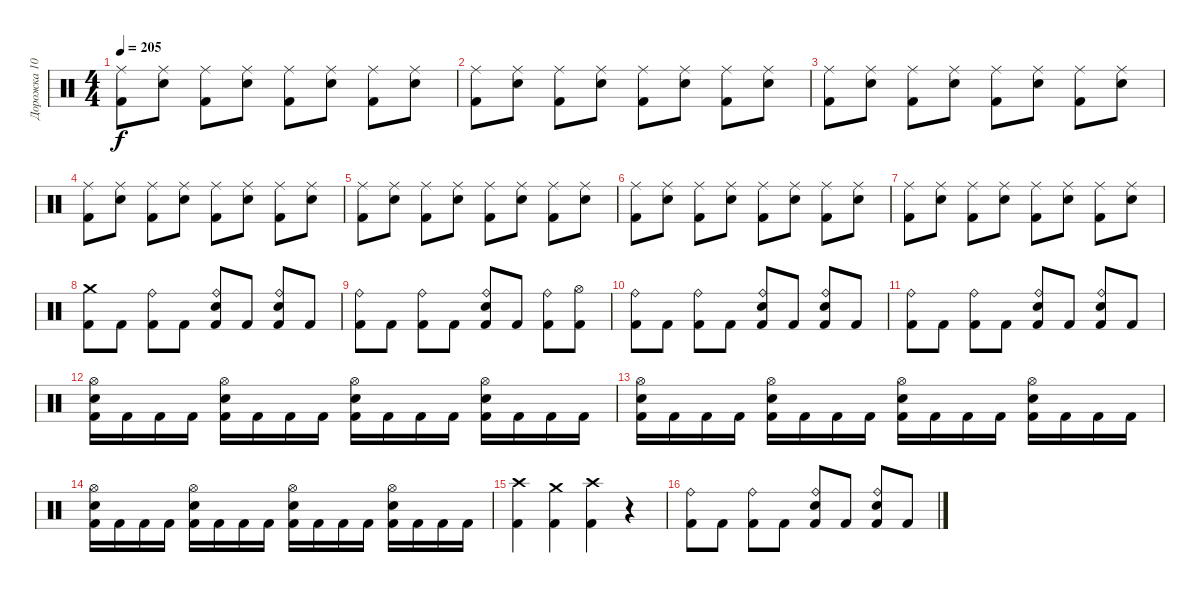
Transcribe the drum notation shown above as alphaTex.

\track ("Дорожка 10" "Дорожка 10") {instrument percussion}
\staff {score}
\articulation defaults
\ts (4 4)
\tempo 205
\clef neutral
\ks c
("Ride (middle)" "Kick (hit) 2").8{dy f} ("Ride (middle)" "Snare (hit) 2").8 ("Ride (middle)" "Kick (hit) 2").8 ("Ride (middle)" "Snare (hit) 2").8 ("Ride (middle)" "Kick (hit) 2").8 ("Ride (middle)" "Snare (hit) 2").8 ("Ride (middle)" "Kick (hit) 2").8 ("Ride (middle)" "Snare (hit) 2").8 |
("Ride (middle)" "Kick (hit) 2").8 ("Ride (middle)" "Snare (hit) 2").8 ("Ride (middle)" "Kick (hit) 2").8 ("Ride (middle)" "Snare (hit) 2").8 ("Ride (middle)" "Kick (hit) 2").8 ("Ride (middle)" "Snare (hit) 2").8 ("Ride (middle)" "Kick (hit) 2").8 ("Ride (middle)" "Snare (hit) 2").8 |
("Ride (middle)" "Kick (hit) 2").8 ("Ride (middle)" "Snare (hit) 2").8 ("Ride (middle)" "Kick (hit) 2").8 ("Ride (middle)" "Snare (hit) 2").8 ("Ride (middle)" "Kick (hit) 2").8 ("Ride (middle)" "Snare (hit) 2").8 ("Ride (middle)" "Kick (hit) 2").8 ("Ride (middle)" "Snare (hit) 2").8 |
("Ride (middle)" "Kick (hit) 2").8 ("Ride (middle)" "Snare (hit) 2").8 ("Ride (middle)" "Kick (hit) 2").8 ("Ride (middle)" "Snare (hit) 2").8 ("Ride (middle)" "Kick (hit) 2").8 ("Ride (middle)" "Snare (hit) 2").8 ("Ride (middle)" "Kick (hit) 2").8 ("Ride (middle)" "Snare (hit) 2").8 |
("Ride (middle)" "Kick (hit) 2").8 ("Ride (middle)" "Snare (hit) 2").8 ("Ride (middle)" "Kick (hit) 2").8 ("Ride (middle)" "Snare (hit) 2").8 ("Ride (middle)" "Kick (hit) 2").8 ("Ride (middle)" "Snare (hit) 2").8 ("Ride (middle)" "Kick (hit) 2").8 ("Ride (middle)" "Snare (hit) 2").8 |
("Ride (middle)" "Kick (hit) 2").8 ("Ride (middle)" "Snare (hit) 2").8 ("Ride (middle)" "Kick (hit) 2").8 ("Ride (middle)" "Snare (hit) 2").8 ("Ride (middle)" "Kick (hit) 2").8 ("Ride (middle)" "Snare (hit) 2").8 ("Ride (middle)" "Kick (hit) 2").8 ("Ride (middle)" "Snare (hit) 2").8 |
("Ride (middle)" "Kick (hit) 2").8 ("Ride (middle)" "Snare (hit) 2").8 ("Ride (middle)" "Kick (hit) 2").8 ("Ride (middle)" "Snare (hit) 2").8 ("Ride (middle)" "Kick (hit) 2").8 ("Ride (middle)" "Snare (hit) 2").8 ("Ride (middle)" "Kick (hit) 2").8 ("Ride (middle)" "Snare (hit) 2").8 |
("Crash medium (hit)" "Kick (hit) 2").8 "Kick (hit) 2".8 ("Ride (bell)" "Kick (hit) 2").8 "Kick (hit) 2".8 ("Ride (bell)" "Electric Snare (hit)" "Kick (hit) 2").8 "Kick (hit) 2".8 ("Ride (bell)" "Electric Snare (hit)" "Kick (hit) 2").8 "Kick (hit) 2".8 |
("Ride (bell)" "Kick (hit) 2").8 "Kick (hit) 2".8 ("Ride (bell)" "Kick (hit) 2").8 "Kick (hit) 2".8 ("Ride (bell)" "Electric Snare (hit)" "Kick (hit) 2").8 "Kick (hit) 2".8 ("Ride (bell)" "Kick (hit) 2").8 ("Hi-Hat (open)" "Kick (hit) 2").8 |
("Ride (bell)" "Kick (hit) 2").8 "Kick (hit) 2".8 ("Ride (bell)" "Kick (hit) 2").8 "Kick (hit) 2".8 ("Ride (bell)" "Electric Snare (hit)" "Kick (hit) 2").8 "Kick (hit) 2".8 ("Ride (bell)" "Electric Snare (hit)" "Kick (hit) 2").8 "Kick (hit) 2".8 |
("Ride (bell)" "Kick (hit) 2").8 "Kick (hit) 2".8 ("Ride (bell)" "Kick (hit) 2").8 "Kick (hit) 2".8 ("Ride (bell)" "Electric Snare (hit)" "Kick (hit) 2").8 "Kick (hit) 2".8 ("Ride (bell)" "Electric Snare (hit)" "Kick (hit) 2").8 "Kick (hit) 2".8 |
("Hi-Hat (open)" "Electric Snare (hit)" "Kick (hit) 2").16 "Kick (hit) 2".16 "Kick (hit) 2".16 "Kick (hit) 2".16 ("Hi-Hat (open)" "Electric Snare (hit)" "Kick (hit) 2").16 "Kick (hit) 2".16 "Kick (hit) 2".16 "Kick (hit) 2".16 ("Hi-Hat (open)" "Electric Snare (hit)" "Kick (hit) 2").16 "Kick (hit) 2".16 "Kick (hit) 2".16 "Kick (hit) 2".16 ("Hi-Hat (open)" "Electric Snare (hit)" "Kick (hit) 2").16 "Kick (hit) 2".16 "Kick (hit) 2".16 "Kick (hit) 2".16 |
("Hi-Hat (open)" "Electric Snare (hit)" "Kick (hit) 2").16 "Kick (hit) 2".16 "Kick (hit) 2".16 "Kick (hit) 2".16 ("Hi-Hat (open)" "Electric Snare (hit)" "Kick (hit) 2").16 "Kick (hit) 2".16 "Kick (hit) 2".16 "Kick (hit) 2".16 ("Hi-Hat (open)" "Electric Snare (hit)" "Kick (hit) 2").16 "Kick (hit) 2".16 "Kick (hit) 2".16 "Kick (hit) 2".16 ("Hi-Hat (open)" "Electric Snare (hit)" "Kick (hit) 2").16 "Kick (hit) 2".16 "Kick (hit) 2".16 "Kick (hit) 2".16 |
("Hi-Hat (open)" "Electric Snare (hit)" "Kick (hit) 2").16 "Kick (hit) 2".16 "Kick (hit) 2".16 "Kick (hit) 2".16 ("Hi-Hat (open)" "Electric Snare (hit)" "Kick (hit) 2").16 "Kick (hit) 2".16 "Kick (hit) 2".16 "Kick (hit) 2".16 ("Hi-Hat (open)" "Electric Snare (hit)" "Kick (hit) 2").16 "Kick (hit) 2".16 "Kick (hit) 2".16 "Kick (hit) 2".16 ("Hi-Hat (open)" "Electric Snare (hit)" "Kick (hit) 2").16 "Kick (hit) 2".16 "Kick (hit) 2".16 "Kick (hit) 2".16 |
("Crash high (hit)" "Kick (hit) 2").4 ("Crash medium (hit)" "Kick (hit) 2").4 ("Crash high (hit)" "Kick (hit) 2").4 r.4 |
("Ride (bell)" "Kick (hit) 2").8 "Kick (hit) 2".8 ("Ride (bell)" "Kick (hit) 2").8 "Kick (hit) 2".8 ("Ride (bell)" "Electric Snare (hit)" "Kick (hit) 2").8 "Kick (hit) 2".8 ("Ride (bell)" "Electric Snare (hit)" "Kick (hit) 2").8 "Kick (hit) 2".8
